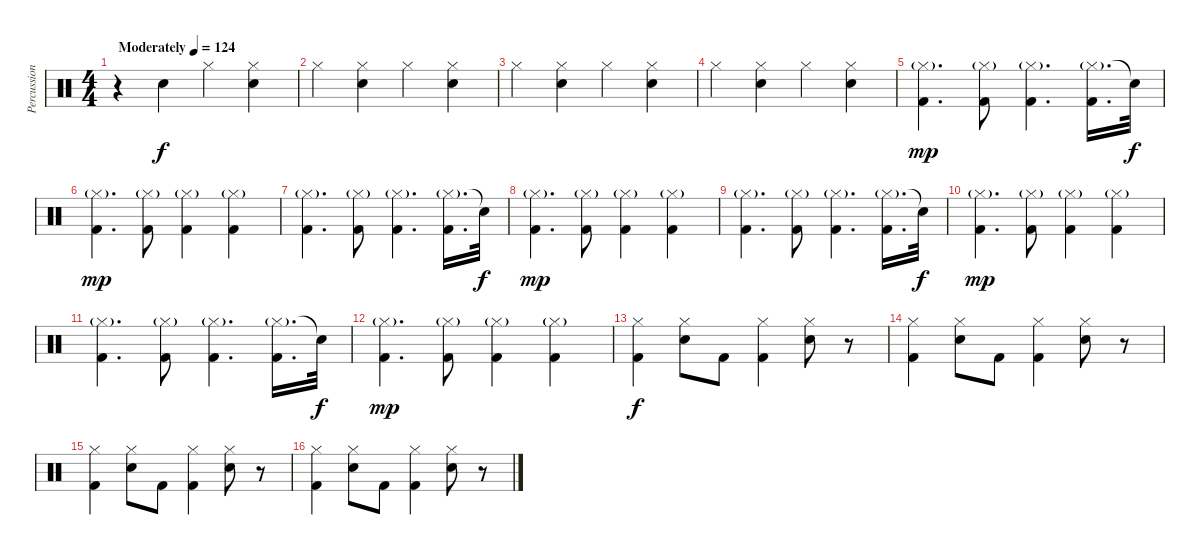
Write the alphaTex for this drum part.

\track ("Percussion" "Percussion") {instrument percussion}
\staff {score}
\articulation defaults
\ts (4 4)
\tempo (124 "Moderately")
\tempo 118
\tempo (124 "Moderately")
\clef neutral
\ks c
r.4{dy f} "Electric Snare (hit)".4 "Hi-Hat (closed)".4 ("Hi-Hat (closed)" "Electric Snare (hit)").4 |
"Hi-Hat (closed)".4 ("Hi-Hat (closed)" "Electric Snare (hit)").4 "Hi-Hat (closed)".4 ("Hi-Hat (closed)" "Electric Snare (hit)").4 |
"Hi-Hat (closed)".4 ("Hi-Hat (closed)" "Electric Snare (hit)").4 "Hi-Hat (closed)".4 ("Hi-Hat (closed)" "Electric Snare (hit)").4 |
"Hi-Hat (closed)".4 ("Hi-Hat (closed)" "Electric Snare (hit)").4 "Hi-Hat (closed)".4 ("Hi-Hat (closed)" "Electric Snare (hit)").4 |
("Hi-Hat (closed)"{g} "Kick (hit) 2").4{d dy mp} ("Hi-Hat (closed)"{g} "Kick (hit) 2").8 ("Hi-Hat (closed)"{g} "Kick (hit) 2").4{d} ("Hi-Hat (closed)"{g} "Kick (hit) 2").16{d} "Snare (hit)"{t}.32{dy f} |
("Hi-Hat (closed)"{g} "Kick (hit) 2").4{d dy mp} ("Hi-Hat (closed)"{g} "Kick (hit) 2").8 ("Hi-Hat (closed)"{g} "Kick (hit) 2").4 ("Hi-Hat (closed)"{g} "Kick (hit) 2").4 |
("Hi-Hat (closed)"{g} "Kick (hit) 2").4{d} ("Hi-Hat (closed)"{g} "Kick (hit) 2").8 ("Hi-Hat (closed)"{g} "Kick (hit) 2").4{d} ("Hi-Hat (closed)"{g} "Kick (hit) 2").16{d} "Snare (hit)"{t}.32{dy f} |
("Hi-Hat (closed)"{g} "Kick (hit) 2").4{d dy mp} ("Hi-Hat (closed)"{g} "Kick (hit) 2").8 ("Hi-Hat (closed)"{g} "Kick (hit) 2").4 ("Hi-Hat (closed)"{g} "Kick (hit) 2").4 |
("Hi-Hat (closed)"{g} "Kick (hit) 2").4{d} ("Hi-Hat (closed)"{g} "Kick (hit) 2").8 ("Hi-Hat (closed)"{g} "Kick (hit) 2").4{d} ("Hi-Hat (closed)"{g} "Kick (hit) 2").16{d} "Snare (hit)"{t}.32{dy f} |
("Hi-Hat (closed)"{g} "Kick (hit) 2").4{d dy mp} ("Hi-Hat (closed)"{g} "Kick (hit) 2").8 ("Hi-Hat (closed)"{g} "Kick (hit) 2").4 ("Hi-Hat (closed)"{g} "Kick (hit) 2").4 |
("Hi-Hat (closed)"{g} "Kick (hit) 2").4{d} ("Hi-Hat (closed)"{g} "Kick (hit) 2").8 ("Hi-Hat (closed)"{g} "Kick (hit) 2").4{d} ("Hi-Hat (closed)"{g} "Kick (hit) 2").16{d} "Snare (hit)"{t}.32{dy f} |
("Hi-Hat (closed)"{g} "Kick (hit) 2").4{d dy mp} ("Hi-Hat (closed)"{g} "Kick (hit) 2").8 ("Hi-Hat (closed)"{g} "Kick (hit) 2").4 ("Hi-Hat (closed)"{g} "Kick (hit) 2").4 |
("Hi-Hat (closed)" "Kick (hit) 2").4{dy f} ("Hi-Hat (closed)" "Electric Snare (hit)").8 "Kick (hit) 2".8 ("Hi-Hat (closed)" "Kick (hit) 2").4 ("Hi-Hat (closed)" "Electric Snare (hit)").8 r.8 |
("Hi-Hat (closed)" "Kick (hit) 2").4 ("Hi-Hat (closed)" "Electric Snare (hit)").8 "Kick (hit) 2".8 ("Hi-Hat (closed)" "Kick (hit) 2").4 ("Hi-Hat (closed)" "Electric Snare (hit)").8 r.8 |
("Hi-Hat (closed)" "Kick (hit) 2").4 ("Hi-Hat (closed)" "Electric Snare (hit)").8 "Kick (hit) 2".8 ("Hi-Hat (closed)" "Kick (hit) 2").4 ("Hi-Hat (closed)" "Electric Snare (hit)").8 r.8 |
("Hi-Hat (closed)" "Kick (hit) 2").4 ("Hi-Hat (closed)" "Electric Snare (hit)").8 "Kick (hit) 2".8 ("Hi-Hat (closed)" "Kick (hit) 2").4 ("Hi-Hat (closed)" "Electric Snare (hit)").8 r.8
